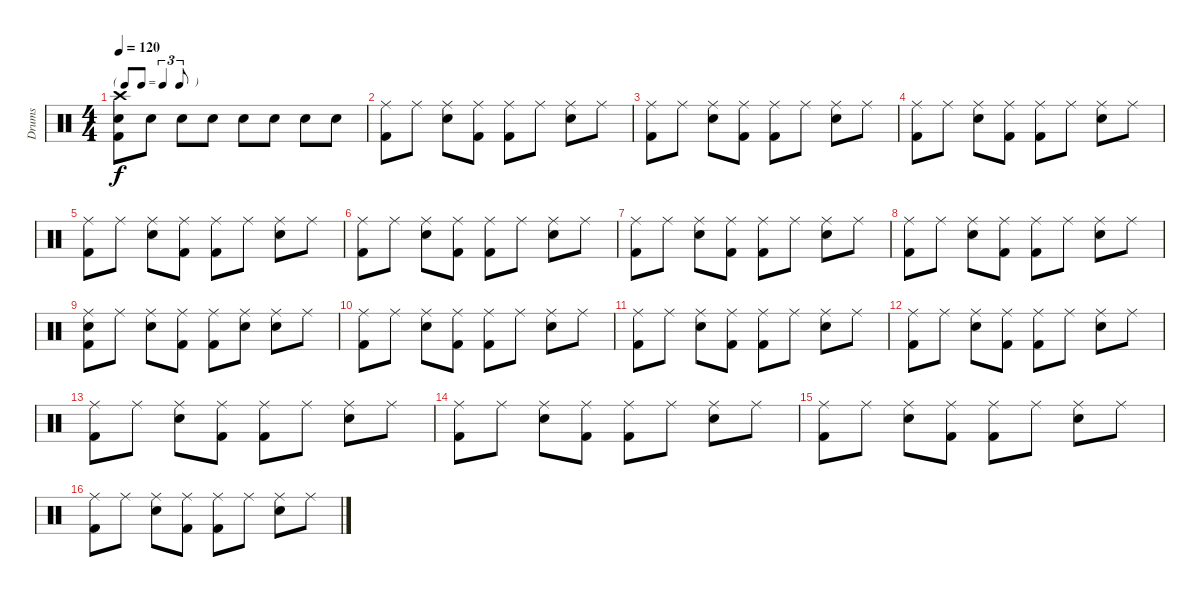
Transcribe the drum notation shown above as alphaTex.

\track ("Drums" "Drums") {instrument percussion}
\staff {score}
\articulation defaults
\ts (4 4)
\tf triplet8th
\tempo 120
\clef neutral
\ks c
("Crash high (hit)" "Electric Snare (hit)" "Kick (hit) 2").8{dy f} "Electric Snare (hit)".8 "Electric Snare (hit)".8 "Electric Snare (hit)".8 "Electric Snare (hit)".8 "Electric Snare (hit)".8 "Electric Snare (hit)".8 "Electric Snare (hit)".8 |
("Ride (middle)" "Kick (hit) 2").8 "Ride (middle)".8 ("Ride (middle)" "Electric Snare (hit)").8 ("Ride (middle)" "Kick (hit) 2").8 ("Ride (middle)" "Kick (hit) 2").8 "Ride (middle)".8 ("Ride (middle)" "Electric Snare (hit)").8 "Ride (middle)".8 |
("Ride (middle)" "Kick (hit) 2").8 "Ride (middle)".8 ("Ride (middle)" "Electric Snare (hit)").8 ("Ride (middle)" "Kick (hit) 2").8 ("Ride (middle)" "Kick (hit) 2").8 "Ride (middle)".8 ("Ride (middle)" "Electric Snare (hit)").8 "Ride (middle)".8 |
("Ride (middle)" "Kick (hit) 2").8 "Ride (middle)".8 ("Ride (middle)" "Electric Snare (hit)").8 ("Ride (middle)" "Kick (hit) 2").8 ("Ride (middle)" "Kick (hit) 2").8 "Ride (middle)".8 ("Ride (middle)" "Electric Snare (hit)").8 "Ride (middle)".8 |
("Ride (middle)" "Kick (hit) 2").8 "Ride (middle)".8 ("Ride (middle)" "Electric Snare (hit)").8 ("Ride (middle)" "Kick (hit) 2").8 ("Ride (middle)" "Kick (hit) 2").8 "Ride (middle)".8 ("Ride (middle)" "Electric Snare (hit)").8 "Ride (middle)".8 |
("Ride (middle)" "Kick (hit) 2").8 "Ride (middle)".8 ("Ride (middle)" "Electric Snare (hit)").8 ("Ride (middle)" "Kick (hit) 2").8 ("Ride (middle)" "Kick (hit) 2").8 "Ride (middle)".8 ("Ride (middle)" "Electric Snare (hit)").8 "Ride (middle)".8 |
("Ride (middle)" "Kick (hit) 2").8 "Ride (middle)".8 ("Ride (middle)" "Electric Snare (hit)").8 ("Ride (middle)" "Kick (hit) 2").8 ("Ride (middle)" "Kick (hit) 2").8 "Ride (middle)".8 ("Ride (middle)" "Electric Snare (hit)").8 "Ride (middle)".8 |
("Ride (middle)" "Kick (hit) 2").8 "Ride (middle)".8 ("Ride (middle)" "Electric Snare (hit)").8 ("Ride (middle)" "Kick (hit) 2").8 ("Ride (middle)" "Kick (hit) 2").8 "Ride (middle)".8 ("Ride (middle)" "Electric Snare (hit)").8 "Ride (middle)".8 |
("Ride (middle)" "Kick (hit) 2" "Electric Snare (hit)").8 "Ride (middle)".8 ("Ride (middle)" "Electric Snare (hit)").8 ("Ride (middle)" "Kick (hit) 2").8 ("Ride (middle)" "Kick (hit) 2").8 ("Ride (middle)" "Electric Snare (hit)").8 ("Ride (middle)" "Electric Snare (hit)").8 "Ride (middle)".8 |
("Ride (middle)" "Kick (hit) 2").8 "Ride (middle)".8 ("Ride (middle)" "Electric Snare (hit)").8 ("Ride (middle)" "Kick (hit) 2").8 ("Ride (middle)" "Kick (hit) 2").8 "Ride (middle)".8 ("Ride (middle)" "Electric Snare (hit)").8 "Ride (middle)".8 |
("Ride (middle)" "Kick (hit) 2").8 "Ride (middle)".8 ("Ride (middle)" "Electric Snare (hit)").8 ("Ride (middle)" "Kick (hit) 2").8 ("Ride (middle)" "Kick (hit) 2").8 "Ride (middle)".8 ("Ride (middle)" "Electric Snare (hit)").8 "Ride (middle)".8 |
("Ride (middle)" "Kick (hit) 2").8 "Ride (middle)".8 ("Ride (middle)" "Electric Snare (hit)").8 ("Ride (middle)" "Kick (hit) 2").8 ("Ride (middle)" "Kick (hit) 2").8 "Ride (middle)".8 ("Ride (middle)" "Electric Snare (hit)").8 "Ride (middle)".8 |
("Ride (middle)" "Kick (hit) 2").8 "Ride (middle)".8 ("Ride (middle)" "Electric Snare (hit)").8 ("Ride (middle)" "Kick (hit) 2").8 ("Ride (middle)" "Kick (hit) 2").8 "Ride (middle)".8 ("Ride (middle)" "Electric Snare (hit)").8 "Ride (middle)".8 |
("Ride (middle)" "Kick (hit) 2").8 "Ride (middle)".8 ("Ride (middle)" "Electric Snare (hit)").8 ("Ride (middle)" "Kick (hit) 2").8 ("Ride (middle)" "Kick (hit) 2").8 "Ride (middle)".8 ("Ride (middle)" "Electric Snare (hit)").8 "Ride (middle)".8 |
("Ride (middle)" "Kick (hit) 2").8 "Ride (middle)".8 ("Ride (middle)" "Electric Snare (hit)").8 ("Ride (middle)" "Kick (hit) 2").8 ("Ride (middle)" "Kick (hit) 2").8 "Ride (middle)".8 ("Ride (middle)" "Electric Snare (hit)").8 "Ride (middle)".8 |
("Ride (middle)" "Kick (hit) 2").8 "Ride (middle)".8 ("Ride (middle)" "Electric Snare (hit)").8 ("Ride (middle)" "Kick (hit) 2").8 ("Ride (middle)" "Kick (hit) 2").8 "Ride (middle)".8 ("Ride (middle)" "Electric Snare (hit)").8 "Ride (middle)".8
